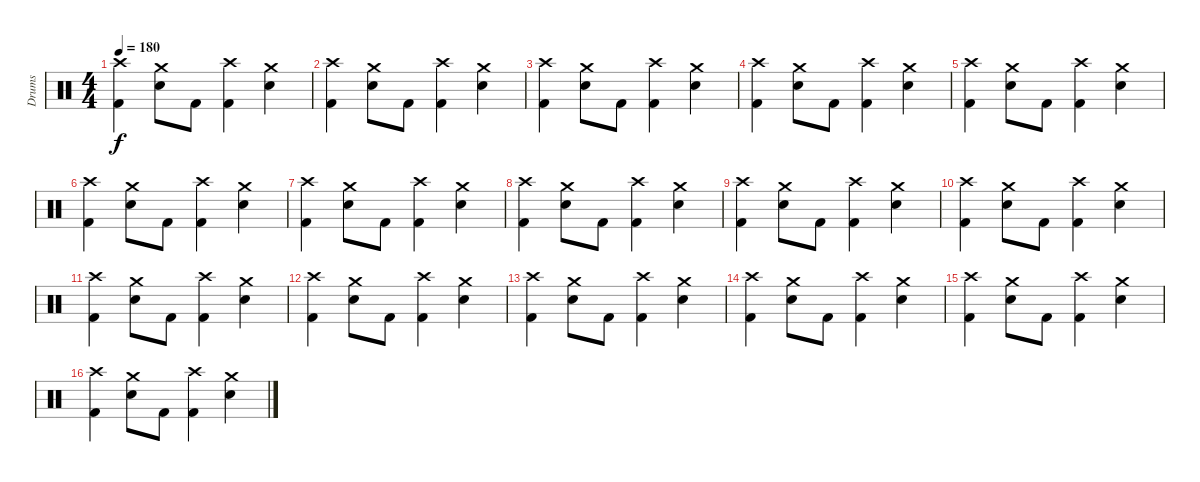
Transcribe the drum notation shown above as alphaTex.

\track ("Drums" "Drums") {instrument percussion}
\staff {score}
\articulation defaults
\ts (4 4)
\tempo 180
\clef neutral
\ks c
("Crash high (hit)" "Kick (hit) 2").4{dy f} ("Crash medium (hit)" "Snare (hit) 2").8 "Kick (hit) 2".8 ("Crash high (hit)" "Kick (hit) 2").4 ("Crash medium (hit)" "Snare (hit) 2").4 |
("Crash high (hit)" "Kick (hit) 2").4 ("Crash medium (hit)" "Snare (hit) 2").8 "Kick (hit) 2".8 ("Crash high (hit)" "Kick (hit) 2").4 ("Crash medium (hit)" "Snare (hit) 2").4 |
("Crash high (hit)" "Kick (hit) 2").4 ("Crash medium (hit)" "Snare (hit) 2").8 "Kick (hit) 2".8 ("Crash high (hit)" "Kick (hit) 2").4 ("Crash medium (hit)" "Snare (hit) 2").4 |
("Crash high (hit)" "Kick (hit) 2").4 ("Crash medium (hit)" "Snare (hit) 2").8 "Kick (hit) 2".8 ("Crash high (hit)" "Kick (hit) 2").4 ("Crash medium (hit)" "Snare (hit) 2").4 |
("Crash high (hit)" "Kick (hit) 2").4 ("Crash medium (hit)" "Snare (hit) 2").8 "Kick (hit) 2".8 ("Crash high (hit)" "Kick (hit) 2").4 ("Crash medium (hit)" "Snare (hit) 2").4 |
("Crash high (hit)" "Kick (hit) 2").4 ("Crash medium (hit)" "Snare (hit) 2").8 "Kick (hit) 2".8 ("Crash high (hit)" "Kick (hit) 2").4 ("Crash medium (hit)" "Snare (hit) 2").4 |
("Crash high (hit)" "Kick (hit) 2").4 ("Crash medium (hit)" "Snare (hit) 2").8 "Kick (hit) 2".8 ("Crash high (hit)" "Kick (hit) 2").4 ("Crash medium (hit)" "Snare (hit) 2").4 |
("Crash high (hit)" "Kick (hit) 2").4 ("Crash medium (hit)" "Snare (hit) 2").8 "Kick (hit) 2".8 ("Crash high (hit)" "Kick (hit) 2").4 ("Crash medium (hit)" "Snare (hit) 2").4 |
("Crash high (hit)" "Kick (hit) 2").4 ("Crash medium (hit)" "Snare (hit) 2").8 "Kick (hit) 2".8 ("Crash high (hit)" "Kick (hit) 2").4 ("Crash medium (hit)" "Snare (hit) 2").4 |
("Crash high (hit)" "Kick (hit) 2").4 ("Crash medium (hit)" "Snare (hit) 2").8 "Kick (hit) 2".8 ("Crash high (hit)" "Kick (hit) 2").4 ("Crash medium (hit)" "Snare (hit) 2").4 |
("Crash high (hit)" "Kick (hit) 2").4 ("Crash medium (hit)" "Snare (hit) 2").8 "Kick (hit) 2".8 ("Crash high (hit)" "Kick (hit) 2").4 ("Crash medium (hit)" "Snare (hit) 2").4 |
("Crash high (hit)" "Kick (hit) 2").4 ("Crash medium (hit)" "Snare (hit) 2").8 "Kick (hit) 2".8 ("Crash high (hit)" "Kick (hit) 2").4 ("Crash medium (hit)" "Snare (hit) 2").4 |
("Crash high (hit)" "Kick (hit) 2").4 ("Crash medium (hit)" "Snare (hit) 2").8 "Kick (hit) 2".8 ("Crash high (hit)" "Kick (hit) 2").4 ("Crash medium (hit)" "Snare (hit) 2").4 |
("Crash high (hit)" "Kick (hit) 2").4 ("Crash medium (hit)" "Snare (hit) 2").8 "Kick (hit) 2".8 ("Crash high (hit)" "Kick (hit) 2").4 ("Crash medium (hit)" "Snare (hit) 2").4 |
("Crash high (hit)" "Kick (hit) 2").4 ("Crash medium (hit)" "Snare (hit) 2").8 "Kick (hit) 2".8 ("Crash high (hit)" "Kick (hit) 2").4 ("Crash medium (hit)" "Snare (hit) 2").4 |
("Crash high (hit)" "Kick (hit) 2").4 ("Crash medium (hit)" "Snare (hit) 2").8 "Kick (hit) 2".8 ("Crash high (hit)" "Kick (hit) 2").4 ("Crash medium (hit)" "Snare (hit) 2").4
